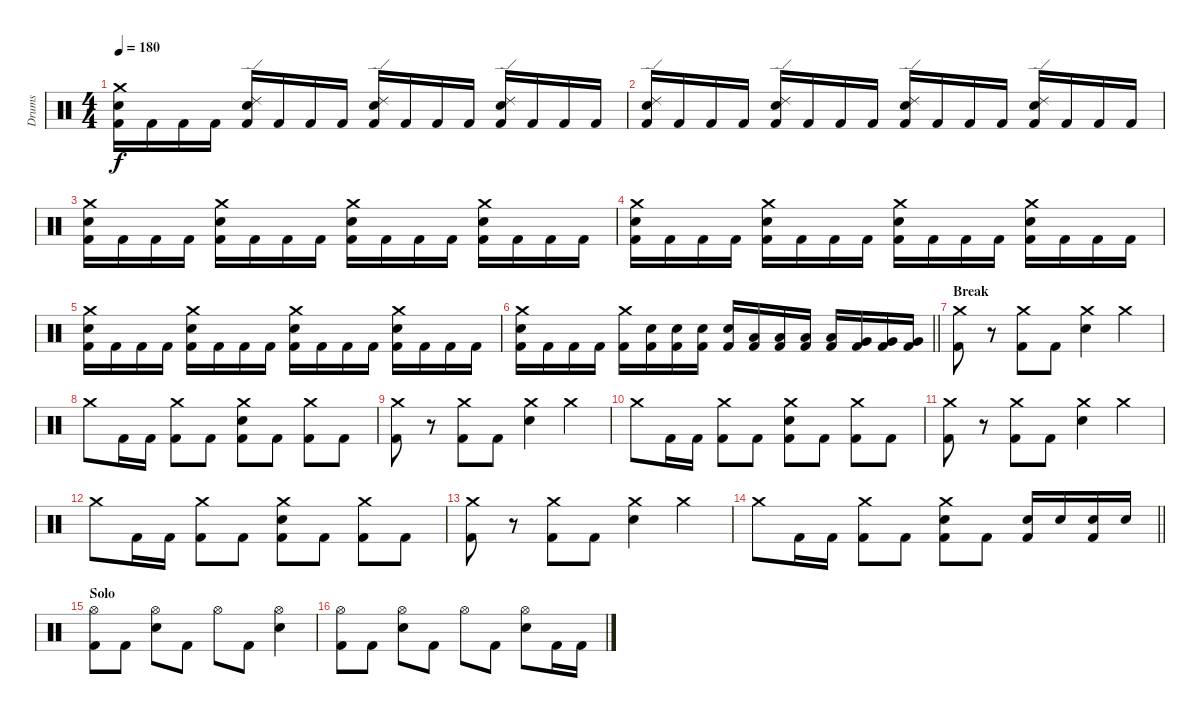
\track ("Drums" "Drums") {instrument percussion}
\staff {score}
\articulation defaults
\ts (4 4)
\tempo 180
\clef neutral
\ks c
("Crash medium (hit)" "Snare (hit) 2" "Kick (hit) 2").16{dy f} "Kick (hit) 2".16 "Kick (hit) 2".16 "Kick (hit) 2".16 ("Ride (edge) 2" "Snare (hit) 2" "Kick (hit) 2").16 "Kick (hit) 2".16 "Kick (hit) 2".16 "Kick (hit) 2".16 ("Ride (edge) 2" "Snare (hit) 2" "Kick (hit) 2").16 "Kick (hit) 2".16 "Kick (hit) 2".16 "Kick (hit) 2".16 ("Ride (edge) 2" "Snare (hit) 2" "Kick (hit) 2").16 "Kick (hit) 2".16 "Kick (hit) 2".16 "Kick (hit) 2".16 |
("Ride (edge) 2" "Snare (hit) 2" "Kick (hit) 2").16 "Kick (hit) 2".16 "Kick (hit) 2".16 "Kick (hit) 2".16 ("Ride (edge) 2" "Snare (hit) 2" "Kick (hit) 2").16 "Kick (hit) 2".16 "Kick (hit) 2".16 "Kick (hit) 2".16 ("Ride (edge) 2" "Snare (hit) 2" "Kick (hit) 2").16 "Kick (hit) 2".16 "Kick (hit) 2".16 "Kick (hit) 2".16 ("Ride (edge) 2" "Snare (hit) 2" "Kick (hit) 2").16 "Kick (hit) 2".16 "Kick (hit) 2".16 "Kick (hit) 2".16 |
("Crash medium (hit)" "Snare (hit) 2" "Kick (hit) 2").16 "Kick (hit) 2".16 "Kick (hit) 2".16 "Kick (hit) 2".16 ("Crash medium (hit)" "Snare (hit) 2" "Kick (hit) 2").16 "Kick (hit) 2".16 "Kick (hit) 2".16 "Kick (hit) 2".16 ("Crash medium (hit)" "Snare (hit) 2" "Kick (hit) 2").16 "Kick (hit) 2".16 "Kick (hit) 2".16 "Kick (hit) 2".16 ("Crash medium (hit)" "Snare (hit) 2" "Kick (hit) 2").16 "Kick (hit) 2".16 "Kick (hit) 2".16 "Kick (hit) 2".16 |
("Crash medium (hit)" "Snare (hit) 2" "Kick (hit) 2").16 "Kick (hit) 2".16 "Kick (hit) 2".16 "Kick (hit) 2".16 ("Crash medium (hit)" "Snare (hit) 2" "Kick (hit) 2").16 "Kick (hit) 2".16 "Kick (hit) 2".16 "Kick (hit) 2".16 ("Crash medium (hit)" "Snare (hit) 2" "Kick (hit) 2").16 "Kick (hit) 2".16 "Kick (hit) 2".16 "Kick (hit) 2".16 ("Crash medium (hit)" "Snare (hit) 2" "Kick (hit) 2").16 "Kick (hit) 2".16 "Kick (hit) 2".16 "Kick (hit) 2".16 |
("Crash medium (hit)" "Snare (hit) 2" "Kick (hit) 2").16 "Kick (hit) 2".16 "Kick (hit) 2".16 "Kick (hit) 2".16 ("Crash medium (hit)" "Snare (hit) 2" "Kick (hit) 2").16 "Kick (hit) 2".16 "Kick (hit) 2".16 "Kick (hit) 2".16 ("Crash medium (hit)" "Snare (hit) 2" "Kick (hit) 2").16 "Kick (hit) 2".16 "Kick (hit) 2".16 "Kick (hit) 2".16 ("Crash medium (hit)" "Snare (hit) 2" "Kick (hit) 2").16 "Kick (hit) 2".16 "Kick (hit) 2".16 "Kick (hit) 2".16 |
\barLineRight lightlight
("Crash medium (hit)" "Snare (hit) 2" "Kick (hit) 2").16 "Kick (hit) 2".16 "Kick (hit) 2".16 "Kick (hit) 2".16 ("Crash medium (hit)" "Kick (hit) 2").16 ("Snare (hit) 2" "Kick (hit) 2").16 ("Snare (hit) 2" "Kick (hit) 2").16 ("Snare (hit) 2" "Kick (hit) 2").16 ("Snare (hit) 2" "Kick (hit) 2").16 ("Low Tom (hit)" "Kick (hit) 2").16 ("Low Tom (hit)" "Kick (hit) 2").16 ("Low Tom (hit)" "Kick (hit) 2").16 ("Low Tom (hit)" "Kick (hit) 2").16 ("Very Low Tom (hit)" "Kick (hit) 2").16 ("Very Low Tom (hit)" "Kick (hit) 2").16 ("Very Low Tom (hit)" "Kick (hit) 2").16 |
\section ("" "Break")
("Crash medium (hit)" "Kick (hit) 2").8 r.8 ("Crash medium (hit)" "Kick (hit) 2").8 "Kick (hit) 2".8 ("Crash medium (hit)" "Snare (hit) 2").4 "Crash medium (hit)".4 |
"Crash medium (hit)".8 "Kick (hit) 2".16 "Kick (hit) 2".16 ("Crash medium (hit)" "Kick (hit) 2").8 "Kick (hit) 2".8 ("Crash medium (hit)" "Snare (hit) 2" "Kick (hit) 2").8 "Kick (hit) 2".8 ("Crash medium (hit)" "Kick (hit) 2").8 "Kick (hit) 2".8 |
("Crash medium (hit)" "Kick (hit) 2").8 r.8 ("Crash medium (hit)" "Kick (hit) 2").8 "Kick (hit) 2".8 ("Crash medium (hit)" "Snare (hit) 2").4 "Crash medium (hit)".4 |
"Crash medium (hit)".8 "Kick (hit) 2".16 "Kick (hit) 2".16 ("Crash medium (hit)" "Kick (hit) 2").8 "Kick (hit) 2".8 ("Crash medium (hit)" "Snare (hit) 2" "Kick (hit) 2").8 "Kick (hit) 2".8 ("Crash medium (hit)" "Kick (hit) 2").8 "Kick (hit) 2".8 |
("Crash medium (hit)" "Kick (hit) 2").8 r.8 ("Crash medium (hit)" "Kick (hit) 2").8 "Kick (hit) 2".8 ("Crash medium (hit)" "Snare (hit) 2").4 "Crash medium (hit)".4 |
"Crash medium (hit)".8 "Kick (hit) 2".16 "Kick (hit) 2".16 ("Crash medium (hit)" "Kick (hit) 2").8 "Kick (hit) 2".8 ("Crash medium (hit)" "Snare (hit) 2" "Kick (hit) 2").8 "Kick (hit) 2".8 ("Crash medium (hit)" "Kick (hit) 2").8 "Kick (hit) 2".8 |
("Crash medium (hit)" "Kick (hit) 2").8 r.8 ("Crash medium (hit)" "Kick (hit) 2").8 "Kick (hit) 2".8 ("Crash medium (hit)" "Snare (hit) 2").4 "Crash medium (hit)".4 |
\barLineRight lightlight "Crash medium (hit)".8 "Kick (hit) 2".16 "Kick (hit) 2".16
("Crash medium (hit)" "Kick (hit) 2").8 "Kick (hit) 2".8 ("Crash medium (hit)" "Snare (hit) 2" "Kick (hit) 2").8 "Kick (hit) 2".8 ("Snare (hit) 2" "Kick (hit) 2").16 "Snare (hit) 2".16 ("Snare (hit) 2" "Kick (hit) 2").16 "Snare (hit) 2".16 |
\section ("" "Solo")
("Hi-Hat (open)" "Kick (hit) 2").8 "Kick (hit) 2".8 ("Hi-Hat (open)" "Snare (hit) 2").8 "Kick (hit) 2".8 "Hi-Hat (open)".8 "Kick (hit) 2".8 ("Hi-Hat (open)" "Snare (hit) 2").4 |
("Hi-Hat (open)" "Kick (hit) 2").8 "Kick (hit) 2".8 ("Hi-Hat (open)" "Snare (hit) 2").8 "Kick (hit) 2".8 "Hi-Hat (open)".8 "Kick (hit) 2".8 ("Hi-Hat (open)" "Snare (hit) 2").8 "Kick (hit) 2".16 "Kick (hit) 2".16
